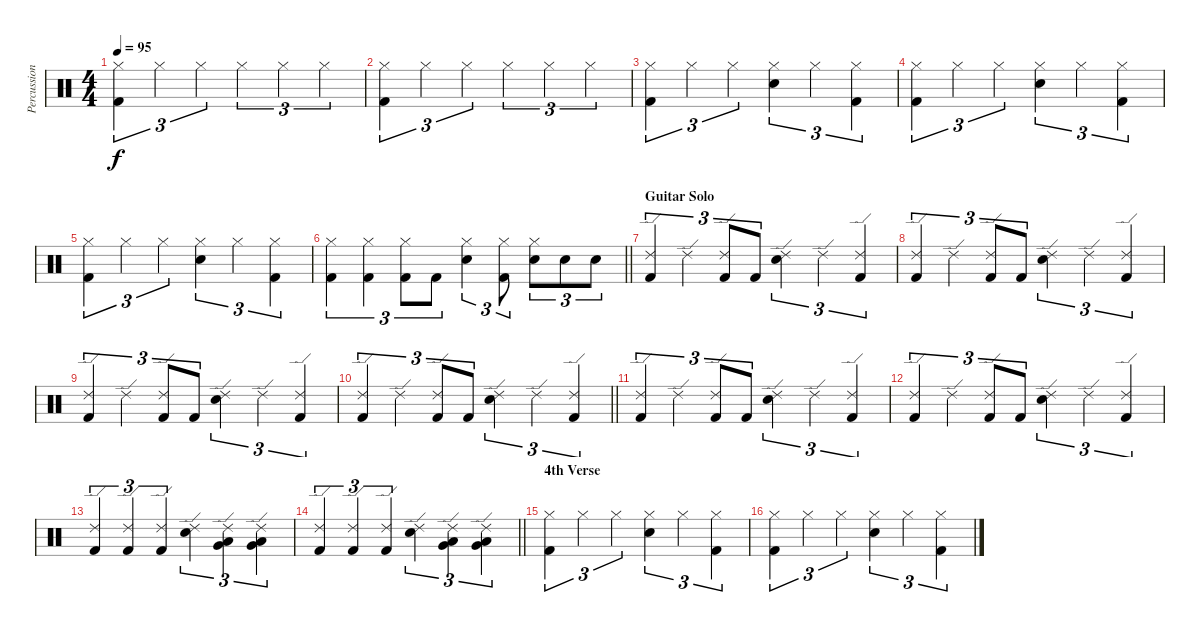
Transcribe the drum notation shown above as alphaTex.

\track ("Percussion" "Percussion") {instrument percussion}
\staff {score}
\articulation defaults
\ts (4 4)
\tempo 95
\clef neutral
\ks c
("Hi-Hat (closed)" "Kick (hit) 2").4{tu (3 2) dy f} "Hi-Hat (closed)".4{tu (3 2)} "Hi-Hat (closed)".4{tu (3 2)} "Hi-Hat (closed)".4{tu (3 2)} "Hi-Hat (closed)".4{tu (3 2)} "Hi-Hat (closed)".4{tu (3 2)} |
("Hi-Hat (closed)" "Kick (hit) 2").4{tu (3 2)} "Hi-Hat (closed)".4{tu (3 2)} "Hi-Hat (closed)".4{tu (3 2)} "Hi-Hat (closed)".4{tu (3 2)} "Hi-Hat (closed)".4{tu (3 2)} "Hi-Hat (closed)".4{tu (3 2)} |
("Hi-Hat (closed)" "Kick (hit) 2").4{tu (3 2)} "Hi-Hat (closed)".4{tu (3 2)} "Hi-Hat (closed)".4{tu (3 2)} ("Hi-Hat (closed)" "Electric Snare (hit)").4{tu (3 2)} "Hi-Hat (closed)".4{tu (3 2)} ("Hi-Hat (closed)" "Kick (hit) 2").4{tu (3 2)} |
("Hi-Hat (closed)" "Kick (hit) 2").4{tu (3 2)} "Hi-Hat (closed)".4{tu (3 2)} "Hi-Hat (closed)".4{tu (3 2)} ("Hi-Hat (closed)" "Electric Snare (hit)").4{tu (3 2)} "Hi-Hat (closed)".4{tu (3 2)} ("Hi-Hat (closed)" "Kick (hit) 2").4{tu (3 2)} |
("Hi-Hat (closed)" "Kick (hit) 2").4{tu (3 2)} "Hi-Hat (closed)".4{tu (3 2)} "Hi-Hat (closed)".4{tu (3 2)} ("Hi-Hat (closed)" "Electric Snare (hit)").4{tu (3 2)} "Hi-Hat (closed)".4{tu (3 2)} ("Hi-Hat (closed)" "Kick (hit) 2").4{tu (3 2)} |
\barLineRight lightlight
("Hi-Hat (closed)" "Kick (hit) 2").4{tu (3 2)} ("Hi-Hat (closed)" "Kick (hit) 2").4{tu (3 2)} ("Hi-Hat (closed)" "Kick (hit) 2").8{tu (3 2)} "Kick (hit) 2".8{tu (3 2)} ("Hi-Hat (closed)" "Electric Snare (hit)").4{tu (3 2)} ("Hi-Hat (closed)" "Kick (hit) 2").8{tu (3 2)} ("Hi-Hat (closed)" "Electric Snare (hit)").8{tu (3 2)} "Electric Snare (hit)".8{tu (3 2)} "Electric Snare (hit)".8{tu (3 2)} |
\section ("" "Guitar Solo")
("Ride (edge) 2" "Kick (hit) 2").4{tu (3 2)} "Ride (edge) 2".4{tu (3 2)} ("Ride (edge) 2" "Kick (hit) 2").8{tu (3 2)} "Kick (hit) 2".8{tu (3 2)} ("Ride (edge) 2" "Electric Snare (hit)").4{tu (3 2)} "Ride (edge) 2".4{tu (3 2)} ("Ride (edge) 2" "Kick (hit) 2").4{tu (3 2)} |
("Ride (edge) 2" "Kick (hit) 2").4{tu (3 2)} "Ride (edge) 2".4{tu (3 2)} ("Ride (edge) 2" "Kick (hit) 2").8{tu (3 2)} "Kick (hit) 2".8{tu (3 2)} ("Ride (edge) 2" "Electric Snare (hit)").4{tu (3 2)} "Ride (edge) 2".4{tu (3 2)} ("Ride (edge) 2" "Kick (hit) 2").4{tu (3 2)} |
("Ride (edge) 2" "Kick (hit) 2").4{tu (3 2)} "Ride (edge) 2".4{tu (3 2)} ("Ride (edge) 2" "Kick (hit) 2").8{tu (3 2)} "Kick (hit) 2".8{tu (3 2)} ("Ride (edge) 2" "Electric Snare (hit)").4{tu (3 2)} "Ride (edge) 2".4{tu (3 2)} ("Ride (edge) 2" "Kick (hit) 2").4{tu (3 2)} |
\barLineRight lightlight
("Ride (edge) 2" "Kick (hit) 2").4{tu (3 2)} "Ride (edge) 2".4{tu (3 2)} ("Ride (edge) 2" "Kick (hit) 2").8{tu (3 2)} "Kick (hit) 2".8{tu (3 2)} ("Ride (edge) 2" "Electric Snare (hit)").4{tu (3 2)} "Ride (edge) 2".4{tu (3 2)} ("Ride (edge) 2" "Kick (hit) 2").4{tu (3 2)} |
("Ride (edge) 2" "Kick (hit) 2").4{tu (3 2)} "Ride (edge) 2".4{tu (3 2)} ("Ride (edge) 2" "Kick (hit) 2").8{tu (3 2)} "Kick (hit) 2".8{tu (3 2)} ("Ride (edge) 2" "Electric Snare (hit)").4{tu (3 2)} "Ride (edge) 2".4{tu (3 2)} ("Ride (edge) 2" "Kick (hit) 2").4{tu (3 2)} |
("Ride (edge) 2" "Kick (hit) 2").4{tu (3 2)} "Ride (edge) 2".4{tu (3 2)} ("Ride (edge) 2" "Kick (hit) 2").8{tu (3 2)} "Kick (hit) 2".8{tu (3 2)} ("Ride (edge) 2" "Electric Snare (hit)").4{tu (3 2)} "Ride (edge) 2".4{tu (3 2)} ("Ride (edge) 2" "Kick (hit) 2").4{tu (3 2)} |
("Ride (edge) 2" "Kick (hit) 2").4{tu (3 2)} ("Ride (edge) 2" "Kick (hit) 2").4{tu (3 2)} ("Ride (edge) 2" "Kick (hit) 2").4{tu (3 2)} ("Ride (edge) 2" "Electric Snare (hit)").4{tu (3 2)} ("Ride (edge) 2" "Very Low Tom (hit)" "Low Tom (hit)").4{tu (3 2)} ("Ride (edge) 2" "Very Low Tom (hit)" "Low Tom (hit)").4{tu (3 2)} |
\barLineRight lightlight
("Ride (edge) 2" "Kick (hit) 2").4{tu (3 2)} ("Ride (edge) 2" "Kick (hit) 2").4{tu (3 2)} ("Ride (edge) 2" "Kick (hit) 2").4{tu (3 2)} ("Ride (edge) 2" "Electric Snare (hit)").4{tu (3 2)} ("Ride (edge) 2" "Very Low Tom (hit)" "Low Tom (hit)").4{tu (3 2)} ("Ride (edge) 2" "Very Low Tom (hit)" "Low Tom (hit)").4{tu (3 2)} |
\section ("" "4th Verse")
("Hi-Hat (closed)" "Kick (hit) 2").4{tu (3 2)} "Hi-Hat (closed)".4{tu (3 2)} "Hi-Hat (closed)".4{tu (3 2)} ("Hi-Hat (closed)" "Electric Snare (hit)").4{tu (3 2)} "Hi-Hat (closed)".4{tu (3 2)} ("Hi-Hat (closed)" "Kick (hit) 2").4{tu (3 2)} |
("Hi-Hat (closed)" "Kick (hit) 2").4{tu (3 2)} "Hi-Hat (closed)".4{tu (3 2)} "Hi-Hat (closed)".4{tu (3 2)} ("Hi-Hat (closed)" "Electric Snare (hit)").4{tu (3 2)} "Hi-Hat (closed)".4{tu (3 2)} ("Hi-Hat (closed)" "Kick (hit) 2").4{tu (3 2)}
